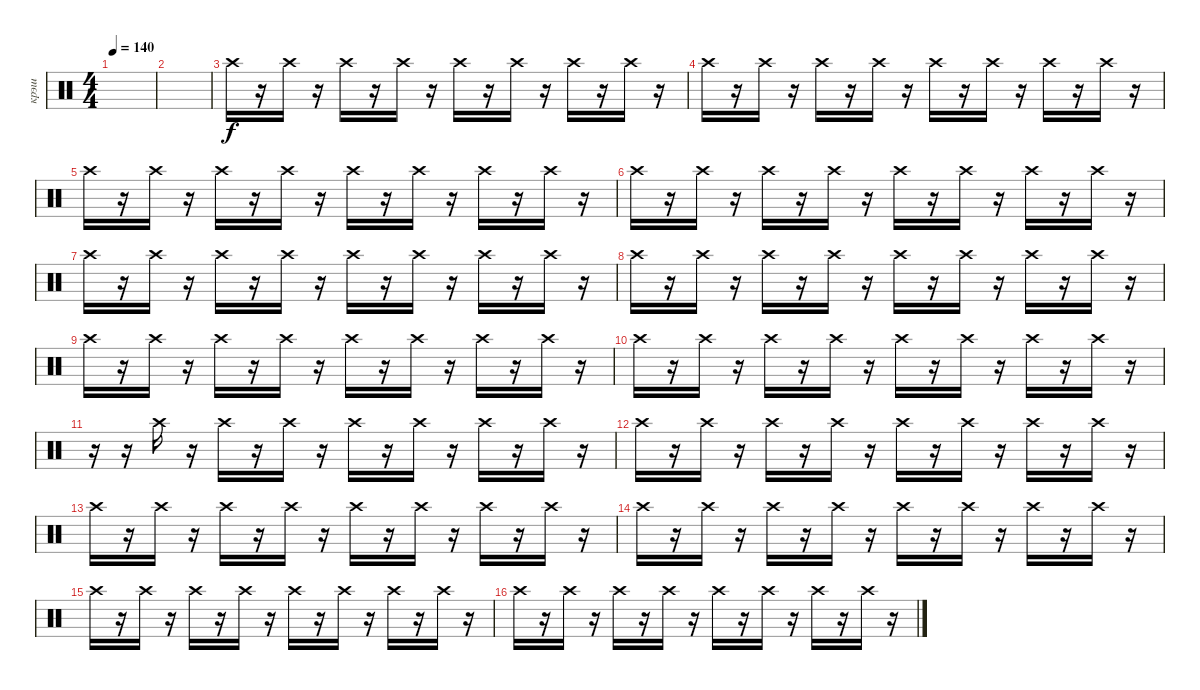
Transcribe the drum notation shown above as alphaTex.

\track ("крэш" "крэш") {mute instrument percussion}
\staff {score}
\articulation defaults
\ts (4 4)
\tempo 140
\clef neutral
\ks c
|
|
"Crash high (hit)".16 r.16 "Crash high (hit)".16 r.16 "Crash high (hit)".16 r.16 "Crash high (hit)".16 r.16 "Crash high (hit)".16 r.16 "Crash high (hit)".16 r.16 "Crash high (hit)".16 r.16 "Crash high (hit)".16 r.16 |
"Crash high (hit)".16 r.16 "Crash high (hit)".16 r.16 "Crash high (hit)".16 r.16 "Crash high (hit)".16 r.16 "Crash high (hit)".16 r.16 "Crash high (hit)".16 r.16 "Crash high (hit)".16 r.16 "Crash high (hit)".16 r.16 |
"Crash high (hit)".16 r.16 "Crash high (hit)".16 r.16 "Crash high (hit)".16 r.16 "Crash high (hit)".16 r.16 "Crash high (hit)".16 r.16 "Crash high (hit)".16 r.16 "Crash high (hit)".16 r.16 "Crash high (hit)".16 r.16 |
"Crash high (hit)".16 r.16 "Crash high (hit)".16 r.16 "Crash high (hit)".16 r.16 "Crash high (hit)".16 r.16 "Crash high (hit)".16 r.16 "Crash high (hit)".16 r.16 "Crash high (hit)".16 r.16 "Crash high (hit)".16 r.16 |
"Crash high (hit)".16 r.16 "Crash high (hit)".16 r.16 "Crash high (hit)".16 r.16 "Crash high (hit)".16 r.16 "Crash high (hit)".16 r.16 "Crash high (hit)".16 r.16 "Crash high (hit)".16 r.16 "Crash high (hit)".16 r.16 |
"Crash high (hit)".16 r.16 "Crash high (hit)".16 r.16 "Crash high (hit)".16 r.16 "Crash high (hit)".16 r.16 "Crash high (hit)".16 r.16 "Crash high (hit)".16 r.16 "Crash high (hit)".16 r.16 "Crash high (hit)".16 r.16 |
"Crash high (hit)".16 r.16 "Crash high (hit)".16 r.16 "Crash high (hit)".16 r.16 "Crash high (hit)".16 r.16 "Crash high (hit)".16 r.16 "Crash high (hit)".16 r.16 "Crash high (hit)".16 r.16 "Crash high (hit)".16 r.16 |
"Crash high (hit)".16 r.16 "Crash high (hit)".16 r.16 "Crash high (hit)".16 r.16 "Crash high (hit)".16 r.16 "Crash high (hit)".16 r.16 "Crash high (hit)".16 r.16 "Crash high (hit)".16 r.16 "Crash high (hit)".16 r.16 |
r.16 r.16 "Crash high (hit)".16 r.16 "Crash high (hit)".16 r.16 "Crash high (hit)".16 r.16 "Crash high (hit)".16 r.16 "Crash high (hit)".16 r.16 "Crash high (hit)".16 r.16 "Crash high (hit)".16 r.16 |
"Crash high (hit)".16 r.16 "Crash high (hit)".16 r.16 "Crash high (hit)".16 r.16 "Crash high (hit)".16 r.16 "Crash high (hit)".16 r.16 "Crash high (hit)".16 r.16 "Crash high (hit)".16 r.16 "Crash high (hit)".16 r.16 |
"Crash high (hit)".16 r.16 "Crash high (hit)".16 r.16 "Crash high (hit)".16 r.16 "Crash high (hit)".16 r.16 "Crash high (hit)".16 r.16 "Crash high (hit)".16 r.16 "Crash high (hit)".16 r.16 "Crash high (hit)".16 r.16 |
"Crash high (hit)".16 r.16 "Crash high (hit)".16 r.16 "Crash high (hit)".16 r.16 "Crash high (hit)".16 r.16 "Crash high (hit)".16 r.16 "Crash high (hit)".16 r.16 "Crash high (hit)".16 r.16 "Crash high (hit)".16 r.16 |
"Crash high (hit)".16 r.16 "Crash high (hit)".16 r.16 "Crash high (hit)".16 r.16 "Crash high (hit)".16 r.16 "Crash high (hit)".16 r.16 "Crash high (hit)".16 r.16 "Crash high (hit)".16 r.16 "Crash high (hit)".16 r.16 |
"Crash high (hit)".16 r.16 "Crash high (hit)".16 r.16 "Crash high (hit)".16 r.16 "Crash high (hit)".16 r.16 "Crash high (hit)".16 r.16 "Crash high (hit)".16 r.16 "Crash high (hit)".16 r.16 "Crash high (hit)".16 r.16
